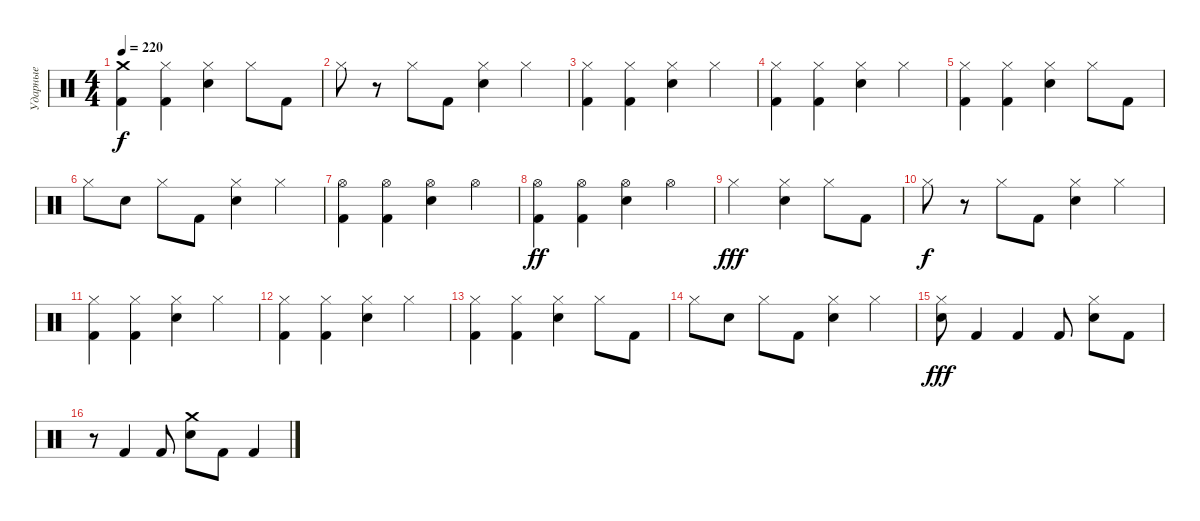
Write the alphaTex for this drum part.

\track ("Ударные" "Ударные") {instrument percussion}
\staff {score}
\articulation defaults
\ts (4 4)
\tempo 220
\clef neutral
\ks c
("Crash medium (hit)" "Kick (hit) 2").4{dy f} ("Hi-Hat (closed)" "Kick (hit) 2").4 ("Hi-Hat (closed)" "Electric Snare (hit)").4 "Hi-Hat (closed)".8 "Kick (hit) 2".8 |
"Hi-Hat (closed)".8 r.8 "Hi-Hat (closed)".8 "Kick (hit) 2".8 ("Hi-Hat (closed)" "Electric Snare (hit)").4 "Hi-Hat (closed)".4 |
("Hi-Hat (closed)" "Kick (hit) 2").4 ("Hi-Hat (closed)" "Kick (hit) 2").4 ("Hi-Hat (closed)" "Electric Snare (hit)").4 "Hi-Hat (closed)".4 |
("Hi-Hat (closed)" "Kick (hit) 2").4 ("Hi-Hat (closed)" "Kick (hit) 2").4 ("Hi-Hat (closed)" "Electric Snare (hit)").4 "Hi-Hat (closed)".4 |
("Hi-Hat (closed)" "Kick (hit) 2").4 ("Hi-Hat (closed)" "Kick (hit) 2").4 ("Hi-Hat (closed)" "Electric Snare (hit)").4 "Hi-Hat (closed)".8 "Kick (hit) 2".8 |
"Hi-Hat (closed)".8 "Electric Snare (hit)".8 "Hi-Hat (closed)".8 "Kick (hit) 2".8 ("Hi-Hat (closed)" "Electric Snare (hit)").4 "Hi-Hat (closed)".4 |
("Hi-Hat (open)" "Kick (hit) 2").4 ("Hi-Hat (open)" "Kick (hit) 2").4 ("Hi-Hat (open)" "Electric Snare (hit)").4 "Hi-Hat (open)".4 |
("Hi-Hat (open)" "Kick (hit) 2").4{dy ff} ("Hi-Hat (open)" "Kick (hit) 2").4 ("Hi-Hat (open)" "Electric Snare (hit)").4 "Hi-Hat (open)".4 |
"Hi-Hat (closed)".2{dy fff} ("Hi-Hat (closed)" "Electric Snare (hit)").4 "Hi-Hat (closed)".8 "Kick (hit) 2".8 |
"Hi-Hat (closed)".8{dy f} r.8 "Hi-Hat (closed)".8 "Kick (hit) 2".8 ("Hi-Hat (closed)" "Electric Snare (hit)").4 "Hi-Hat (closed)".4 |
("Hi-Hat (closed)" "Kick (hit) 2").4 ("Hi-Hat (closed)" "Kick (hit) 2").4 ("Hi-Hat (closed)" "Electric Snare (hit)").4 "Hi-Hat (closed)".4 |
("Hi-Hat (closed)" "Kick (hit) 2").4 ("Hi-Hat (closed)" "Kick (hit) 2").4 ("Hi-Hat (closed)" "Electric Snare (hit)").4 "Hi-Hat (closed)".4 |
("Hi-Hat (closed)" "Kick (hit) 2").4 ("Hi-Hat (closed)" "Kick (hit) 2").4 ("Hi-Hat (closed)" "Electric Snare (hit)").4 "Hi-Hat (closed)".8 "Kick (hit) 2".8 |
"Hi-Hat (closed)".8 "Electric Snare (hit)".8 "Hi-Hat (closed)".8 "Kick (hit) 2".8 ("Hi-Hat (closed)" "Electric Snare (hit)").4 "Hi-Hat (closed)".4 |
("Hi-Hat (closed)" "Electric Snare (hit)").8{dy fff} "Kick (hit) 2".4 "Kick (hit) 2".4 "Kick (hit) 2".8 ("Hi-Hat (closed)" "Electric Snare (hit)").8 "Kick (hit) 2".8 |
r.8 "Kick (hit) 2".4 "Kick (hit) 2".8 ("Crash medium (hit)" "Electric Snare (hit)").8 "Kick (hit) 2".8 "Kick (hit) 2".4
